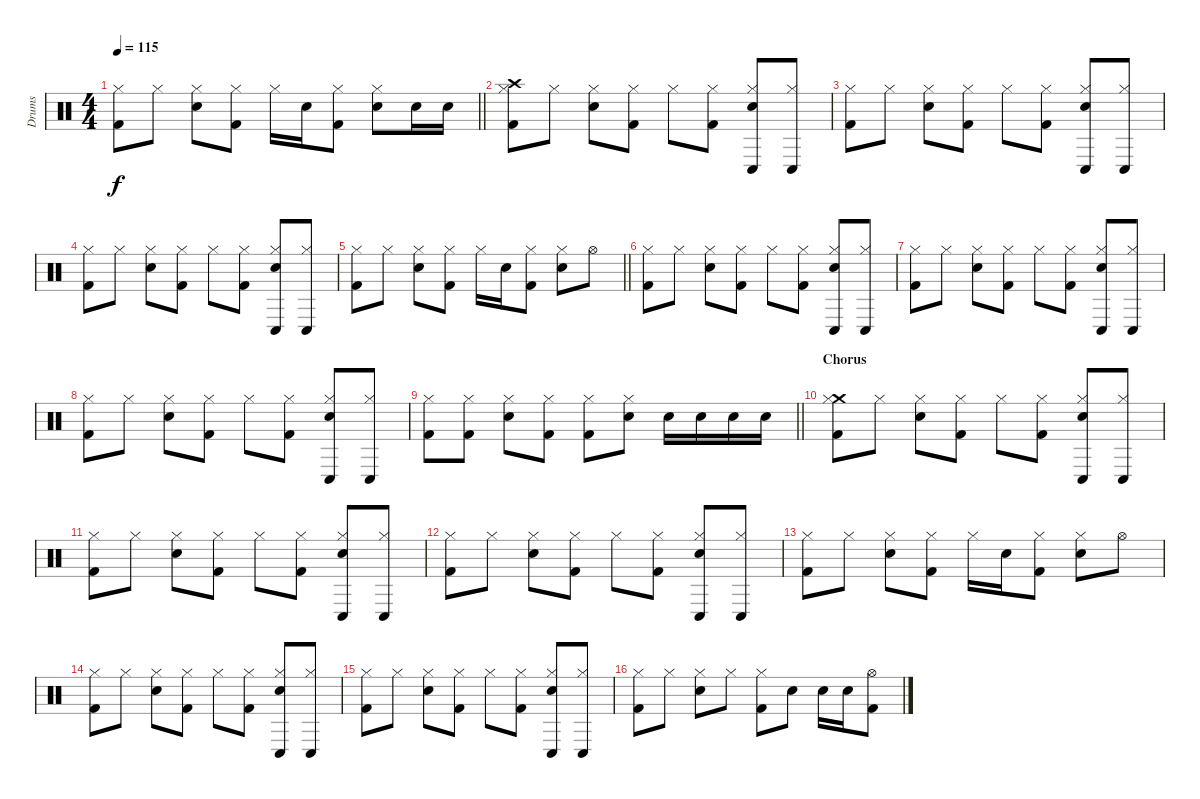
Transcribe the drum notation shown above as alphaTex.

\track ("Drums" "Drums") {instrument percussion}
\staff {score}
\articulation defaults
\ts (4 4)
\tempo 115
\clef neutral
\barLineRight lightlight
\ks c
("Kick (hit) 2" "Hi-Hat (closed)").8{dy f} "Hi-Hat (closed)".8 ("Electric Snare (hit)" "Hi-Hat (closed)").8 ("Kick (hit) 2" "Hi-Hat (closed)").8 "Hi-Hat (closed)".16 "Electric Snare (hit)".16 ("Kick (hit) 2" "Hi-Hat (closed)").8 ("Electric Snare (hit)" "Hi-Hat (closed)").8 "Electric Snare (hit)".16 "Electric Snare (hit)".16 |
("Crash high (hit)" "Kick (hit) 2" "Hi-Hat (closed)").8 "Hi-Hat (closed)".8 ("Electric Snare (hit)" "Hi-Hat (closed)").8 ("Kick (hit) 2" "Hi-Hat (closed)").8 "Hi-Hat (closed)".8 ("Kick (hit) 2" "Hi-Hat (closed)").8 ("Conga low (hit)" "Electric Snare (hit)" "Hi-Hat (closed)").8 ("Conga low (hit)" "Hi-Hat (closed)").8 |
("Kick (hit) 2" "Hi-Hat (closed)").8 "Hi-Hat (closed)".8 ("Electric Snare (hit)" "Hi-Hat (closed)").8 ("Kick (hit) 2" "Hi-Hat (closed)").8 "Hi-Hat (closed)".8 ("Kick (hit) 2" "Hi-Hat (closed)").8 ("Conga low (hit)" "Electric Snare (hit)" "Hi-Hat (closed)").8 ("Conga low (hit)" "Hi-Hat (closed)").8 |
("Kick (hit) 2" "Hi-Hat (closed)").8 "Hi-Hat (closed)".8 ("Electric Snare (hit)" "Hi-Hat (closed)").8 ("Kick (hit) 2" "Hi-Hat (closed)").8 "Hi-Hat (closed)".8 ("Kick (hit) 2" "Hi-Hat (closed)").8 ("Conga low (hit)" "Electric Snare (hit)" "Hi-Hat (closed)").8 ("Conga low (hit)" "Hi-Hat (closed)").8 |
\barLineRight lightlight
("Kick (hit) 2" "Hi-Hat (closed)").8 "Hi-Hat (closed)".8 ("Electric Snare (hit)" "Hi-Hat (closed)").8 ("Kick (hit) 2" "Hi-Hat (closed)").8 "Hi-Hat (closed)".16 "Electric Snare (hit)".16 ("Kick (hit) 2" "Hi-Hat (closed)").8 ("Electric Snare (hit)" "Hi-Hat (closed)").8 "Hi-Hat (open)".8 |
("Kick (hit) 2" "Hi-Hat (closed)").8 "Hi-Hat (closed)".8 ("Electric Snare (hit)" "Hi-Hat (closed)").8 ("Kick (hit) 2" "Hi-Hat (closed)").8 "Hi-Hat (closed)".8 ("Kick (hit) 2" "Hi-Hat (closed)").8 ("Conga low (hit)" "Electric Snare (hit)" "Hi-Hat (closed)").8 ("Conga low (hit)" "Hi-Hat (closed)").8 |
("Kick (hit) 2" "Hi-Hat (closed)").8 "Hi-Hat (closed)".8 ("Electric Snare (hit)" "Hi-Hat (closed)").8 ("Kick (hit) 2" "Hi-Hat (closed)").8 "Hi-Hat (closed)".8 ("Kick (hit) 2" "Hi-Hat (closed)").8 ("Conga low (hit)" "Electric Snare (hit)" "Hi-Hat (closed)").8 ("Conga low (hit)" "Hi-Hat (closed)").8 |
("Kick (hit) 2" "Hi-Hat (closed)").8 "Hi-Hat (closed)".8 ("Electric Snare (hit)" "Hi-Hat (closed)").8 ("Kick (hit) 2" "Hi-Hat (closed)").8 "Hi-Hat (closed)".8 ("Kick (hit) 2" "Hi-Hat (closed)").8 ("Conga low (hit)" "Electric Snare (hit)" "Hi-Hat (closed)").8 ("Conga low (hit)" "Hi-Hat (closed)").8 |
\barLineRight lightlight
("Kick (hit) 2" "Hi-Hat (closed)").8 ("Kick (hit) 2" "Hi-Hat (closed)").8 ("Electric Snare (hit)" "Hi-Hat (closed)").8 ("Kick (hit) 2" "Hi-Hat (closed)").8 ("Kick (hit) 2" "Hi-Hat (closed)").8 ("Electric Snare (hit)" "Hi-Hat (closed)").8 "Electric Snare (hit)".16 "Electric Snare (hit)".16 "Electric Snare (hit)".16 "Electric Snare (hit)".16 |
\section ("" "Chorus")
("Crash medium (hit)" "Kick (hit) 2" "Hi-Hat (closed)").8 "Hi-Hat (closed)".8 ("Electric Snare (hit)" "Hi-Hat (closed)").8 ("Kick (hit) 2" "Hi-Hat (closed)").8 "Hi-Hat (closed)".8 ("Kick (hit) 2" "Hi-Hat (closed)").8 ("Conga low (hit)" "Electric Snare (hit)" "Hi-Hat (closed)").8 ("Conga low (hit)" "Hi-Hat (closed)").8 |
("Kick (hit) 2" "Hi-Hat (closed)").8 "Hi-Hat (closed)".8 ("Electric Snare (hit)" "Hi-Hat (closed)").8 ("Kick (hit) 2" "Hi-Hat (closed)").8 "Hi-Hat (closed)".8 ("Kick (hit) 2" "Hi-Hat (closed)").8 ("Conga low (hit)" "Electric Snare (hit)" "Hi-Hat (closed)").8 ("Conga low (hit)" "Hi-Hat (closed)").8 |
("Kick (hit) 2" "Hi-Hat (closed)").8 "Hi-Hat (closed)".8 ("Electric Snare (hit)" "Hi-Hat (closed)").8 ("Kick (hit) 2" "Hi-Hat (closed)").8 "Hi-Hat (closed)".8 ("Kick (hit) 2" "Hi-Hat (closed)").8 ("Conga low (hit)" "Electric Snare (hit)" "Hi-Hat (closed)").8 ("Conga low (hit)" "Hi-Hat (closed)").8 |
("Kick (hit) 2" "Hi-Hat (closed)").8 "Hi-Hat (closed)".8 ("Electric Snare (hit)" "Hi-Hat (closed)").8 ("Kick (hit) 2" "Hi-Hat (closed)").8 "Hi-Hat (closed)".16 "Electric Snare (hit)".16 ("Kick (hit) 2" "Hi-Hat (closed)").8 ("Electric Snare (hit)" "Hi-Hat (closed)").8 "Hi-Hat (open)".8 |
("Kick (hit) 2" "Hi-Hat (closed)").8 "Hi-Hat (closed)".8 ("Electric Snare (hit)" "Hi-Hat (closed)").8 ("Kick (hit) 2" "Hi-Hat (closed)").8 "Hi-Hat (closed)".8 ("Kick (hit) 2" "Hi-Hat (closed)").8 ("Conga low (hit)" "Electric Snare (hit)" "Hi-Hat (closed)").8 ("Conga low (hit)" "Hi-Hat (closed)").8 |
("Kick (hit) 2" "Hi-Hat (closed)").8 "Hi-Hat (closed)".8 ("Electric Snare (hit)" "Hi-Hat (closed)").8 ("Kick (hit) 2" "Hi-Hat (closed)").8 "Hi-Hat (closed)".8 ("Kick (hit) 2" "Hi-Hat (closed)").8 ("Conga low (hit)" "Electric Snare (hit)" "Hi-Hat (closed)").8 ("Conga low (hit)" "Hi-Hat (closed)").8 |
("Kick (hit) 2" "Hi-Hat (closed)").8 "Hi-Hat (closed)".8 ("Electric Snare (hit)" "Hi-Hat (closed)").8 "Hi-Hat (closed)".8 ("Kick (hit) 2" "Hi-Hat (closed)").8 "Electric Snare (hit)".8 "Electric Snare (hit)".16 "Electric Snare (hit)".16 ("Kick (hit) 2" "Hi-Hat (open)").8
